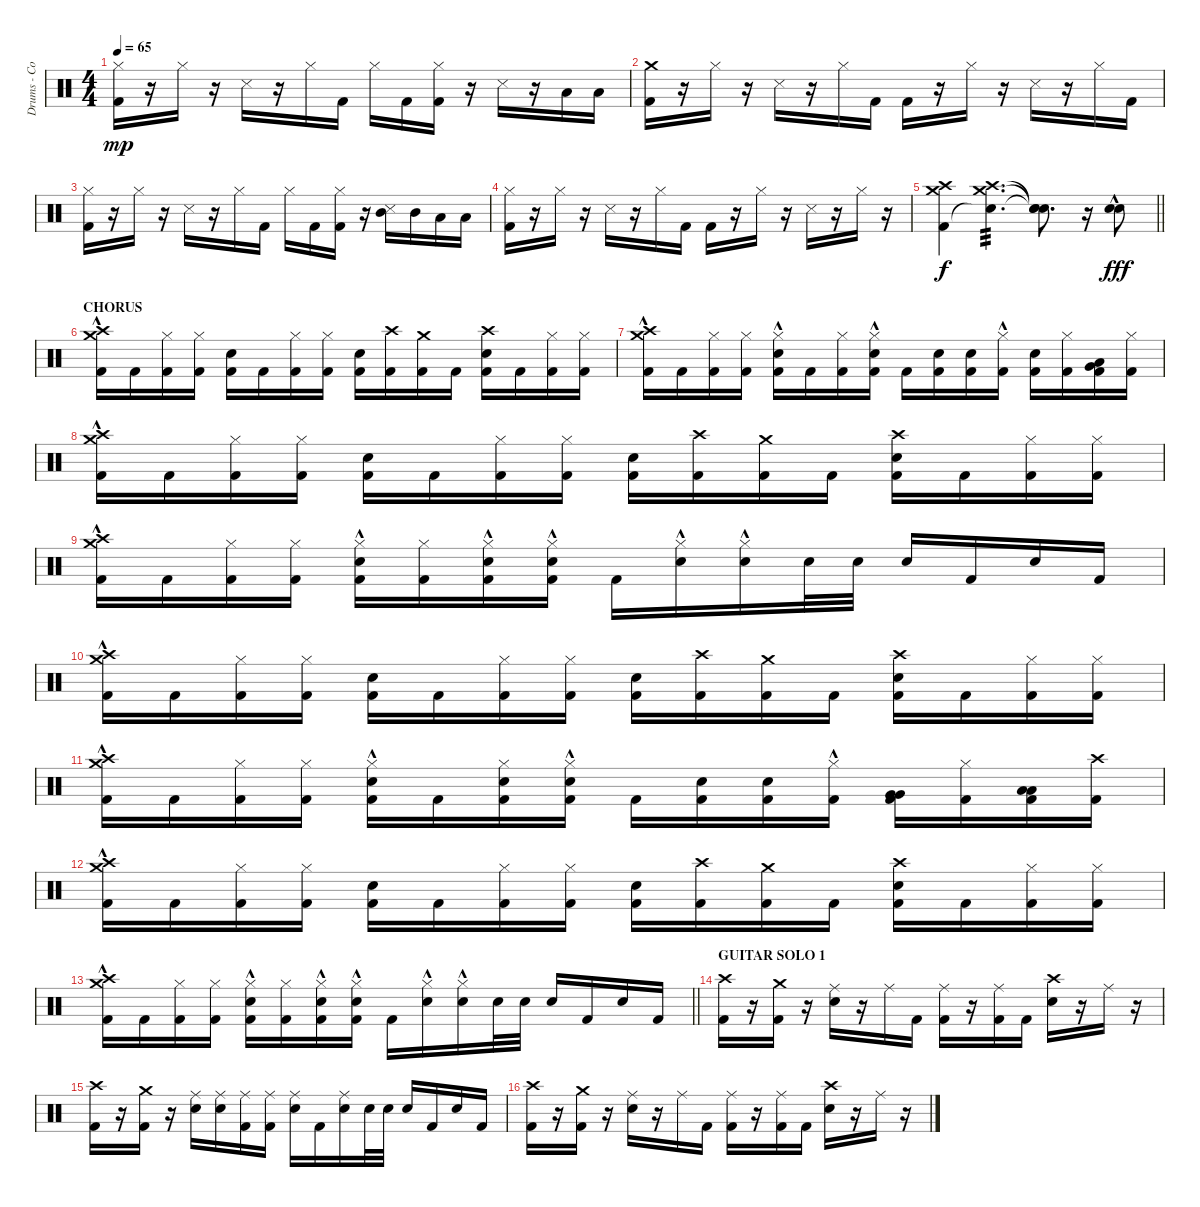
\track ("Drums - Cozy Powell" "Drums - Co") {instrument percussion}
\staff {score}
\articulation defaults
\ts (4 4)
\tempo 65
\clef neutral
\ks c
("Hi-Hat (closed)" "Kick (hit) 2").16{dy mp} r.16 "Hi-Hat (closed)".16 r.16 "Snare (side stick) 3".16 r.16 "Hi-Hat (closed)".16 "Kick (hit) 2".16 "Hi-Hat (closed)".16 "Kick (hit) 2".16 ("Hi-Hat (closed)" "Kick (hit) 2").16 r.16 "Snare (side stick) 3".16 r.16 "Low Tom (hit)".16 "Low Floor Tom (hit)".16 |
("Crash medium (hit)" "Kick (hit) 2").16 r.16 "Hi-Hat (closed)".16 r.16 "Snare (side stick) 3".16 r.16 "Hi-Hat (closed)".16 "Kick (hit) 2".16 "Kick (hit) 2".16 r.16 "Hi-Hat (closed)".16 r.16 "Snare (side stick) 3".16 r.16 "Hi-Hat (closed)".16 "Kick (hit) 2".16 |
("Hi-Hat (closed)" "Kick (hit) 2").16 r.16 "Hi-Hat (closed)".16 r.16 "Snare (side stick) 3".16 r.16 "Hi-Hat (closed)".16 "Kick (hit) 2".16 "Hi-Hat (closed)".16 "Kick (hit) 2".16 ("Hi-Hat (closed)" "Kick (hit) 2").16 r.16 ("Snare (side stick) 3" "Mid Tom (hit)").16 "Mid Tom (hit)".16 "Low Tom (hit)".16 "Low Floor Tom (hit)".16 |
("Hi-Hat (closed)" "Kick (hit) 2").16 r.16 "Hi-Hat (closed)".16 r.16 "Snare (side stick) 3".16 r.16 "Hi-Hat (closed)".16 "Kick (hit) 2".16 "Kick (hit) 2".16 r.16 "Hi-Hat (closed)".16 r.16 "Snare (side stick) 3".16 r.16 "Hi-Hat (closed)".16 r.16 |
\barLineRight lightlight
("Crash high (hit)" "Crash medium (hit)" "Kick (hit) 2").4{dy f} ("Crash high (hit)" "Crash medium (hit)" "Snare (hit)"{t}).4{d tp 3} ("Snare (hit)"{t} "Snare (hit)"{t} "Snare (hit)"{t}).8{d} r.16 ("Snare (hit) 2" "Snare (hit) 2"{hac}).8{dy fff} |
\section ("" "CHORUS")
("Crash medium (hit)" "Crash high (hit)"{hac} "Kick (hit) 2").16 "Kick (hit) 2".16 ("Hi-Hat (closed)" "Kick (hit) 2").16 ("Hi-Hat (closed)" "Kick (hit) 2").16 ("Snare (hit) 2" "Kick (hit) 2").16 "Kick (hit) 2".16 ("Hi-Hat (closed)" "Kick (hit) 2").16 ("Hi-Hat (closed)" "Kick (hit) 2").16 ("Snare (hit) 2" "Kick (hit) 2").16 ("Crash high (hit)" "Kick (hit) 2").16 ("Crash medium (hit)" "Kick (hit) 2").16 "Kick (hit) 2".16 ("Crash high (hit)" "Snare (hit) 2" "Kick (hit) 2").16 "Kick (hit) 2".16 ("Hi-Hat (closed)" "Kick (hit) 2").16 ("Hi-Hat (closed)" "Kick (hit) 2").16 |
("Crash medium (hit)" "Crash high (hit)"{hac} "Kick (hit) 2").16 "Kick (hit) 2".16 ("Hi-Hat (closed)" "Kick (hit) 2").16 ("Hi-Hat (closed)" "Kick (hit) 2").16 ("Hi-Hat (closed)"{hac} "Snare (hit) 2" "Kick (hit) 2").16 "Kick (hit) 2".16 ("Hi-Hat (closed)" "Kick (hit) 2").16 ("Hi-Hat (closed)"{hac} "Snare (hit) 2" "Kick (hit) 2").16 "Kick (hit) 2".16 ("Snare (hit) 2" "Kick (hit) 2").16 ("Snare (hit) 2" "Kick (hit) 2").16 ("Hi-Hat (closed)"{hac} "Kick (hit) 2").16 ("Snare (hit) 2" "Kick (hit) 2").16 ("Hi-Hat (closed)" "Kick (hit) 2").16 ("Low Floor Tom (hit)" "Very Low Tom (hit)" "Kick (hit) 2").16 ("Hi-Hat (closed)" "Kick (hit) 2").16 |
("Crash medium (hit)" "Crash high (hit)"{hac} "Kick (hit) 2").16 "Kick (hit) 2".16 ("Hi-Hat (closed)" "Kick (hit) 2").16 ("Hi-Hat (closed)" "Kick (hit) 2").16 ("Snare (hit) 2" "Kick (hit) 2").16 "Kick (hit) 2".16 ("Hi-Hat (closed)" "Kick (hit) 2").16 ("Hi-Hat (closed)" "Kick (hit) 2").16 ("Snare (hit) 2" "Kick (hit) 2").16 ("Crash high (hit)" "Kick (hit) 2").16 ("Crash medium (hit)" "Kick (hit) 2").16 "Kick (hit) 2".16 ("Crash high (hit)" "Snare (hit) 2" "Kick (hit) 2").16 "Kick (hit) 2".16 ("Hi-Hat (closed)" "Kick (hit) 2").16 ("Hi-Hat (closed)" "Kick (hit) 2").16 |
("Crash medium (hit)" "Crash high (hit)"{hac} "Kick (hit) 2").16 "Kick (hit) 2".16 ("Hi-Hat (closed)" "Kick (hit) 2").16 ("Hi-Hat (closed)" "Kick (hit) 2").16 ("Hi-Hat (closed)"{hac} "Snare (hit) 2" "Kick (hit) 2").16 ("Hi-Hat (closed)" "Kick (hit) 2").16 ("Hi-Hat (closed)"{hac} "Snare (hit) 2" "Kick (hit) 2").16 ("Hi-Hat (closed)"{hac} "Snare (hit) 2" "Kick (hit) 2").16 "Kick (hit) 2".16 ("Hi-Hat (closed)"{hac} "Snare (hit) 2").16 ("Hi-Hat (closed)"{hac} "Snare (hit) 2").16 "Snare (hit) 2".32 "Snare (hit) 2".32 "Snare (hit) 2".16 "Kick (hit) 2".16 "Snare (hit) 2".16 "Kick (hit) 2".16 |
("Crash medium (hit)" "Crash high (hit)"{hac} "Kick (hit) 2").16 "Kick (hit) 2".16 ("Hi-Hat (closed)" "Kick (hit) 2").16 ("Hi-Hat (closed)" "Kick (hit) 2").16 ("Snare (hit) 2" "Kick (hit) 2").16 "Kick (hit) 2".16 ("Hi-Hat (closed)" "Kick (hit) 2").16 ("Hi-Hat (closed)" "Kick (hit) 2").16 ("Snare (hit) 2" "Kick (hit) 2").16 ("Crash high (hit)" "Kick (hit) 2").16 ("Crash medium (hit)" "Kick (hit) 2").16 "Kick (hit) 2".16 ("Crash high (hit)" "Snare (hit) 2" "Kick (hit) 2").16 "Kick (hit) 2".16 ("Hi-Hat (closed)" "Kick (hit) 2").16 ("Hi-Hat (closed)" "Kick (hit) 2").16 |
("Crash medium (hit)" "Crash high (hit)"{hac} "Kick (hit) 2").16 "Kick (hit) 2".16 ("Hi-Hat (closed)" "Kick (hit) 2").16 ("Hi-Hat (closed)" "Kick (hit) 2").16 ("Hi-Hat (closed)"{hac} "Snare (hit) 2" "Kick (hit) 2").16 "Kick (hit) 2".16 ("Hi-Hat (closed)" "Snare (hit) 2" "Kick (hit) 2").16 ("Hi-Hat (closed)"{hac} "Snare (hit) 2" "Kick (hit) 2").16 "Kick (hit) 2".16 ("Snare (hit) 2" "Kick (hit) 2").16 ("Snare (hit) 2" "Kick (hit) 2").16 ("Hi-Hat (closed)"{hac} "Kick (hit) 2").16 ("Very Low Tom (hit)" "Very Low Tom (hit)" "Kick (hit) 2").16 ("Hi-Hat (closed)" "Kick (hit) 2").16 ("Low Floor Tom (hit)" "Low Floor Tom (hit)" "Kick (hit) 2").16 ("Crash high (hit)" "Kick (hit) 2").16 |
("Crash medium (hit)" "Crash high (hit)"{hac} "Kick (hit) 2").16 "Kick (hit) 2".16 ("Hi-Hat (closed)" "Kick (hit) 2").16 ("Hi-Hat (closed)" "Kick (hit) 2").16 ("Snare (hit) 2" "Kick (hit) 2").16 "Kick (hit) 2".16 ("Hi-Hat (closed)" "Kick (hit) 2").16 ("Hi-Hat (closed)" "Kick (hit) 2").16 ("Snare (hit) 2" "Kick (hit) 2").16 ("Crash high (hit)" "Kick (hit) 2").16 ("Crash medium (hit)" "Kick (hit) 2").16 "Kick (hit) 2".16 ("Crash high (hit)" "Snare (hit) 2" "Kick (hit) 2").16 "Kick (hit) 2".16 ("Hi-Hat (closed)" "Kick (hit) 2").16 ("Hi-Hat (closed)" "Kick (hit) 2").16 |
\barLineRight lightlight
("Crash medium (hit)" "Crash high (hit)"{hac} "Kick (hit) 2").16 "Kick (hit) 2".16 ("Hi-Hat (closed)" "Kick (hit) 2").16 ("Hi-Hat (closed)" "Kick (hit) 2").16 ("Hi-Hat (closed)"{hac} "Snare (hit) 2" "Kick (hit) 2").16 ("Hi-Hat (closed)" "Kick (hit) 2").16 ("Hi-Hat (closed)"{hac} "Snare (hit) 2" "Kick (hit) 2").16 ("Hi-Hat (closed)"{hac} "Snare (hit) 2" "Kick (hit) 2").16 "Kick (hit) 2".16 ("Hi-Hat (closed)"{hac} "Snare (hit) 2").16 ("Hi-Hat (closed)"{hac} "Snare (hit) 2").16 "Snare (hit) 2".32 "Snare (hit) 2".32 "Snare (hit) 2".16 "Kick (hit) 2".16 "Snare (hit) 2".16 "Kick (hit) 2".16 |
\section ("" "GUITAR SOLO 1")
("Crash high (hit)" "Kick (hit) 2").16 r.16 ("Crash medium (hit)" "Kick (hit) 2").16 r.16 ("Ride (middle)" "Snare (hit) 2").16 r.16 "Ride (middle)".16 "Kick (hit) 2".16 ("Ride (middle)" "Kick (hit) 2").16 r.16 ("Ride (middle)" "Kick (hit) 2").16 "Kick (hit) 2".16 ("Crash high (hit)" "Snare (hit) 2").16 r.16 "Ride (middle)".16 r.16 |
("Crash high (hit)" "Kick (hit) 2").16 r.16 ("Crash medium (hit)" "Kick (hit) 2").16 r.16 ("Ride (middle)" "Snare (hit) 2").16 ("Ride (middle)" "Snare (hit) 2").16 ("Ride (middle)" "Kick (hit) 2").16 ("Ride (middle)" "Kick (hit) 2").16 ("Ride (middle)" "Snare (hit) 2").16 "Kick (hit) 2".16 ("Ride (middle)" "Snare (hit) 2").16 "Snare (hit) 2".32 "Snare (hit) 2".32 "Snare (hit) 2".16 "Kick (hit) 2".16 "Snare (hit) 2".16 "Kick (hit) 2".16 |
("Crash high (hit)" "Kick (hit) 2").16 r.16 ("Crash medium (hit)" "Kick (hit) 2").16 r.16 ("Ride (middle)" "Snare (hit) 2").16 r.16 "Ride (middle)".16 "Kick (hit) 2".16 ("Ride (middle)" "Kick (hit) 2").16 r.16 ("Ride (middle)" "Kick (hit) 2").16 "Kick (hit) 2".16 ("Crash high (hit)" "Snare (hit) 2").16 r.16 "Ride (middle)".16 r.16
